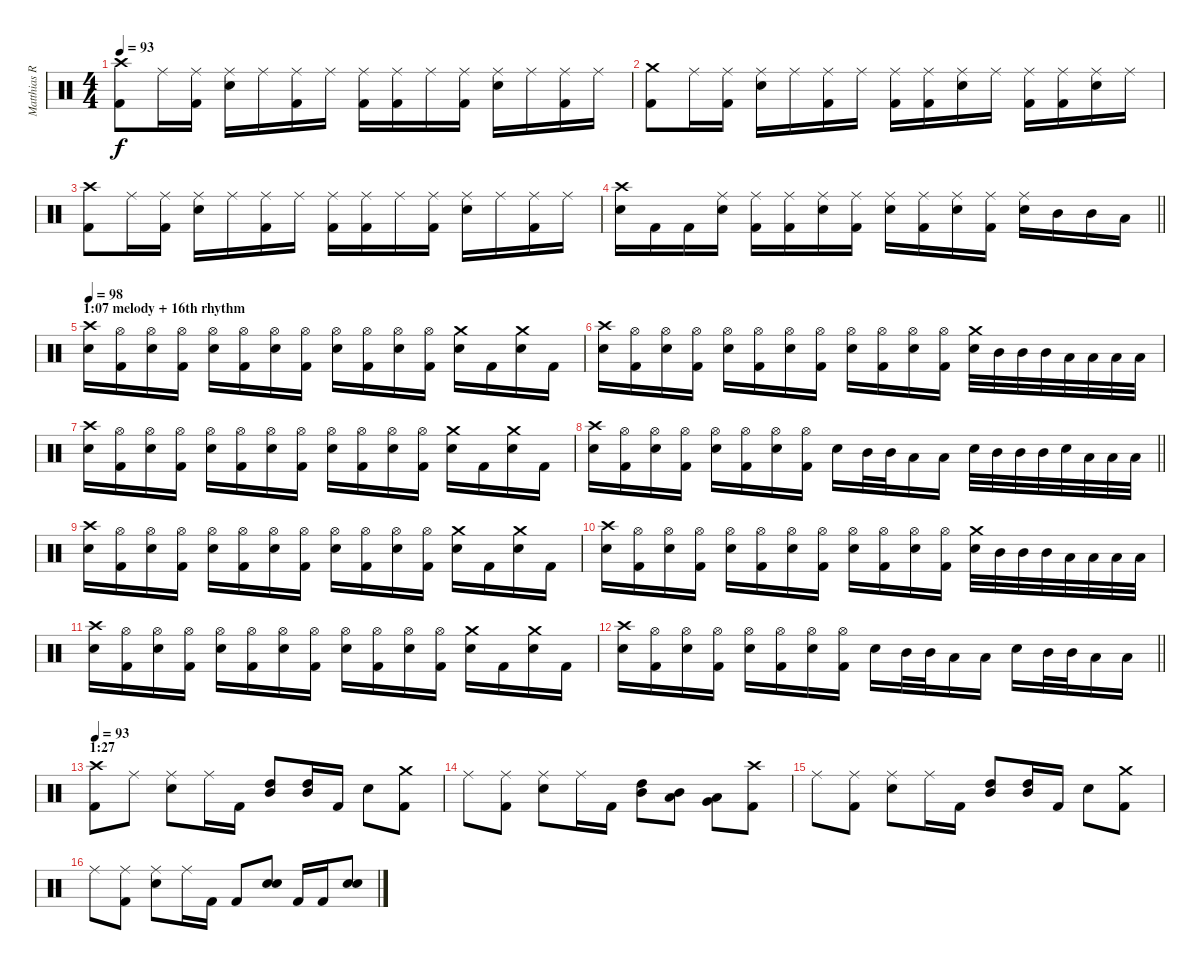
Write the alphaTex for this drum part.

\track ("Matthias R." "Matthias R") {instrument percussion}
\staff {score}
\articulation defaults
\ts (4 4)
\tempo 93
\clef neutral
\ks c
("Kick (hit) 2" "Crash high (hit)").8{dy f} "Ride (middle)".16 ("Kick (hit) 2" "Ride (middle)").16 ("Snare (hit) 2" "Ride (middle)").16 "Ride (middle)".16 ("Kick (hit) 2" "Ride (middle)").16 "Ride (middle)".16 ("Kick (hit) 2" "Ride (middle)").16 ("Kick (hit) 2" "Ride (middle)").16 "Ride (middle)".16 ("Kick (hit) 2" "Ride (middle)").16 ("Snare (hit) 2" "Ride (middle)").16 "Ride (middle)".16 ("Kick (hit) 2" "Ride (middle)").16 "Ride (middle)".16 |
("Kick (hit) 2" "Crash medium (hit)").8 "Ride (middle)".16 ("Kick (hit) 2" "Ride (middle)").16 ("Snare (hit) 2" "Ride (middle)").16 "Ride (middle)".16 ("Kick (hit) 2" "Ride (middle)").16 "Ride (middle)".16 ("Kick (hit) 2" "Ride (middle)").16 ("Kick (hit) 2" "Ride (middle)").16 ("Snare (hit) 2" "Ride (middle)").16 "Ride (middle)".16 ("Kick (hit) 2" "Ride (middle)").16 ("Kick (hit) 2" "Ride (middle)").16 ("Snare (hit) 2" "Ride (middle)").16 "Ride (middle)".16 |
("Kick (hit) 2" "Crash high (hit)").8 "Ride (middle)".16 ("Kick (hit) 2" "Ride (middle)").16 ("Snare (hit) 2" "Ride (middle)").16 "Ride (middle)".16 ("Kick (hit) 2" "Ride (middle)").16 "Ride (middle)".16 ("Kick (hit) 2" "Ride (middle)").16 ("Kick (hit) 2" "Ride (middle)").16 "Ride (middle)".16 ("Kick (hit) 2" "Ride (middle)").16 ("Snare (hit) 2" "Ride (middle)").16 "Ride (middle)".16 ("Kick (hit) 2" "Ride (middle)").16 "Ride (middle)".16 |
\barLineRight lightlight
("Snare (hit) 2" "Crash high (hit)").16 "Kick (hit) 2".16 "Kick (hit) 2".16 ("Snare (hit) 2" "Ride (middle)").16 ("Kick (hit) 2" "Ride (middle)").16 ("Kick (hit) 2" "Ride (middle)").16 ("Snare (hit) 2" "Ride (middle)").16 ("Kick (hit) 2" "Ride (middle)").16 ("Snare (hit) 2" "Ride (middle)").16 ("Kick (hit) 2" "Ride (middle)").16 ("Snare (hit) 2" "Ride (middle)").16 ("Kick (hit) 2" "Ride (middle)").16 ("Snare (hit) 2" "Ride (middle)").16 "Mid Tom (hit)".16 "Mid Tom (hit)".16 "Low Tom (hit)".16 |
\section ("" "1:07 melody + 16th rhythm")
\tempo 98
("Snare (hit) 2" "Crash high (hit)").16 ("Kick (hit) 2" "Hi-Hat (open)").16 ("Snare (hit) 2" "Hi-Hat (open)").16 ("Kick (hit) 2" "Hi-Hat (open)").16 ("Snare (hit) 2" "Hi-Hat (open)").16 ("Kick (hit) 2" "Hi-Hat (open)").16 ("Snare (hit) 2" "Hi-Hat (open)").16 ("Kick (hit) 2" "Hi-Hat (open)").16 ("Snare (hit) 2" "Hi-Hat (open)").16 ("Kick (hit) 2" "Hi-Hat (open)").16 ("Snare (hit) 2" "Hi-Hat (open)").16 ("Kick (hit) 2" "Hi-Hat (open)").16 ("Snare (hit) 2" "Crash medium (hit)").16 "Kick (hit) 2".16 ("Snare (hit) 2" "Crash medium (hit)").16 "Kick (hit) 2".16 |
("Snare (hit) 2" "Crash high (hit)").16 ("Kick (hit) 2" "Hi-Hat (open)").16 ("Snare (hit) 2" "Hi-Hat (open)").16 ("Kick (hit) 2" "Hi-Hat (open)").16 ("Snare (hit) 2" "Hi-Hat (open)").16 ("Kick (hit) 2" "Hi-Hat (open)").16 ("Snare (hit) 2" "Hi-Hat (open)").16 ("Kick (hit) 2" "Hi-Hat (open)").16 ("Snare (hit) 2" "Hi-Hat (open)").16 ("Kick (hit) 2" "Hi-Hat (open)").16 ("Snare (hit) 2" "Hi-Hat (open)").16 ("Kick (hit) 2" "Hi-Hat (open)").16 ("Snare (hit) 2" "Crash medium (hit)").32 "Mid Tom (hit)".32 "Mid Tom (hit)".32 "Mid Tom (hit)".32 "Low Tom (hit)".32 "Low Tom (hit)".32 "Low Tom (hit)".32 "Low Tom (hit)".32 |
("Snare (hit) 2" "Crash high (hit)").16 ("Kick (hit) 2" "Hi-Hat (open)").16 ("Snare (hit) 2" "Hi-Hat (open)").16 ("Kick (hit) 2" "Hi-Hat (open)").16 ("Snare (hit) 2" "Hi-Hat (open)").16 ("Kick (hit) 2" "Hi-Hat (open)").16 ("Snare (hit) 2" "Hi-Hat (open)").16 ("Kick (hit) 2" "Hi-Hat (open)").16 ("Snare (hit) 2" "Hi-Hat (open)").16 ("Kick (hit) 2" "Hi-Hat (open)").16 ("Snare (hit) 2" "Hi-Hat (open)").16 ("Kick (hit) 2" "Hi-Hat (open)").16 ("Snare (hit) 2" "Crash medium (hit)").16 "Kick (hit) 2".16 ("Snare (hit) 2" "Crash medium (hit)").16 "Kick (hit) 2".16 |
\barLineRight lightlight
("Snare (hit) 2" "Crash high (hit)").16 ("Kick (hit) 2" "Hi-Hat (open)").16 ("Snare (hit) 2" "Hi-Hat (open)").16 ("Kick (hit) 2" "Hi-Hat (open)").16 ("Snare (hit) 2" "Hi-Hat (open)").16 ("Kick (hit) 2" "Hi-Hat (open)").16 ("Snare (hit) 2" "Hi-Hat (open)").16 ("Kick (hit) 2" "Hi-Hat (open)").16 "Snare (hit) 2".16 "Mid Tom (hit)".32 "Mid Tom (hit)".32 "Low Tom (hit)".16 "Low Tom (hit)".16 "Snare (hit) 2".32 "Mid Tom (hit)".32 "Mid Tom (hit)".32 "Mid Tom (hit)".32 "Snare (hit) 2".32 "Low Tom (hit)".32 "Low Tom (hit)".32 "Low Tom (hit)".32 |
("Snare (hit) 2" "Crash high (hit)").16 ("Kick (hit) 2" "Hi-Hat (open)").16 ("Snare (hit) 2" "Hi-Hat (open)").16 ("Kick (hit) 2" "Hi-Hat (open)").16 ("Snare (hit) 2" "Hi-Hat (open)").16 ("Kick (hit) 2" "Hi-Hat (open)").16 ("Snare (hit) 2" "Hi-Hat (open)").16 ("Kick (hit) 2" "Hi-Hat (open)").16 ("Snare (hit) 2" "Hi-Hat (open)").16 ("Kick (hit) 2" "Hi-Hat (open)").16 ("Snare (hit) 2" "Hi-Hat (open)").16 ("Kick (hit) 2" "Hi-Hat (open)").16 ("Snare (hit) 2" "Crash medium (hit)").16 "Kick (hit) 2".16 ("Snare (hit) 2" "Crash medium (hit)").16 "Kick (hit) 2".16 |
("Snare (hit) 2" "Crash high (hit)").16 ("Kick (hit) 2" "Hi-Hat (open)").16 ("Snare (hit) 2" "Hi-Hat (open)").16 ("Kick (hit) 2" "Hi-Hat (open)").16 ("Snare (hit) 2" "Hi-Hat (open)").16 ("Kick (hit) 2" "Hi-Hat (open)").16 ("Snare (hit) 2" "Hi-Hat (open)").16 ("Kick (hit) 2" "Hi-Hat (open)").16 ("Snare (hit) 2" "Hi-Hat (open)").16 ("Kick (hit) 2" "Hi-Hat (open)").16 ("Snare (hit) 2" "Hi-Hat (open)").16 ("Kick (hit) 2" "Hi-Hat (open)").16 ("Snare (hit) 2" "Crash medium (hit)").32 "Mid Tom (hit)".32 "Mid Tom (hit)".32 "Mid Tom (hit)".32 "Low Tom (hit)".32 "Low Tom (hit)".32 "Low Tom (hit)".32 "Low Tom (hit)".32 |
("Snare (hit) 2" "Crash high (hit)").16 ("Kick (hit) 2" "Hi-Hat (open)").16 ("Snare (hit) 2" "Hi-Hat (open)").16 ("Kick (hit) 2" "Hi-Hat (open)").16 ("Snare (hit) 2" "Hi-Hat (open)").16 ("Kick (hit) 2" "Hi-Hat (open)").16 ("Snare (hit) 2" "Hi-Hat (open)").16 ("Kick (hit) 2" "Hi-Hat (open)").16 ("Snare (hit) 2" "Hi-Hat (open)").16 ("Kick (hit) 2" "Hi-Hat (open)").16 ("Snare (hit) 2" "Hi-Hat (open)").16 ("Kick (hit) 2" "Hi-Hat (open)").16 ("Snare (hit) 2" "Crash medium (hit)").16 "Kick (hit) 2".16 ("Snare (hit) 2" "Crash medium (hit)").16 "Kick (hit) 2".16 |
\barLineRight lightlight
("Snare (hit) 2" "Crash high (hit)").16 ("Kick (hit) 2" "Hi-Hat (open)").16 ("Snare (hit) 2" "Hi-Hat (open)").16 ("Kick (hit) 2" "Hi-Hat (open)").16 ("Snare (hit) 2" "Hi-Hat (open)").16 ("Kick (hit) 2" "Hi-Hat (open)").16 ("Snare (hit) 2" "Hi-Hat (open)").16 ("Kick (hit) 2" "Hi-Hat (open)").16 "Snare (hit) 2".16 "Mid Tom (hit)".32 "Mid Tom (hit)".32 "Low Tom (hit)".16 "Low Tom (hit)".16 "Snare (hit) 2".16 "Mid Tom (hit)".32 "Mid Tom (hit)".32 "Low Tom (hit)".16 "Low Tom (hit)".16 |
\section ("" "1:27")
\tempo 93
("Kick (hit) 2" "Crash high (hit)").8 "Ride (middle)".8 ("Snare (hit) 2" "Ride (middle)").8 "Ride (middle)".16 "Kick (hit) 2".16 ("High Tom (hit)" "Mid Tom (hit)").8 ("High Tom (hit)" "Mid Tom (hit)").16 "Kick (hit) 2".16 "Snare (hit) 2".8 ("Kick (hit) 2" "Crash medium (hit)").8 |
"Ride (middle)".8 ("Kick (hit) 2" "Ride (middle)").8 ("Snare (hit) 2" "Ride (middle)").8 "Ride (middle)".16 "Kick (hit) 2".16 ("High Tom (hit)" "Mid Tom (hit)").8 ("Mid Tom (hit)" "Low Tom (hit)").8 ("Low Tom (hit)" "Very Low Tom (hit)").8 ("Kick (hit) 2" "Crash high (hit)").8 |
"Ride (middle)".8 ("Kick (hit) 2" "Ride (middle)").8 ("Snare (hit) 2" "Ride (middle)").8 "Ride (middle)".16 "Kick (hit) 2".16 ("High Tom (hit)" "Mid Tom (hit)").8 ("High Tom (hit)" "Mid Tom (hit)").16 "Kick (hit) 2".16 "Snare (hit) 2".8 ("Kick (hit) 2" "Crash medium (hit)").8 |
"Ride (middle)".8 ("Kick (hit) 2" "Ride (middle)").8 ("Snare (hit) 2" "Ride (middle)").8 "Ride (middle)".16 "Kick (hit) 2".16 "Kick (hit) 2".8 ("Snare (hit) 2" "Electric Snare (hit)").8{bu 30} "Kick (hit) 2".16 "Kick (hit) 2".16 ("Snare (hit) 2" "Electric Snare (hit)").8{bu 30}
